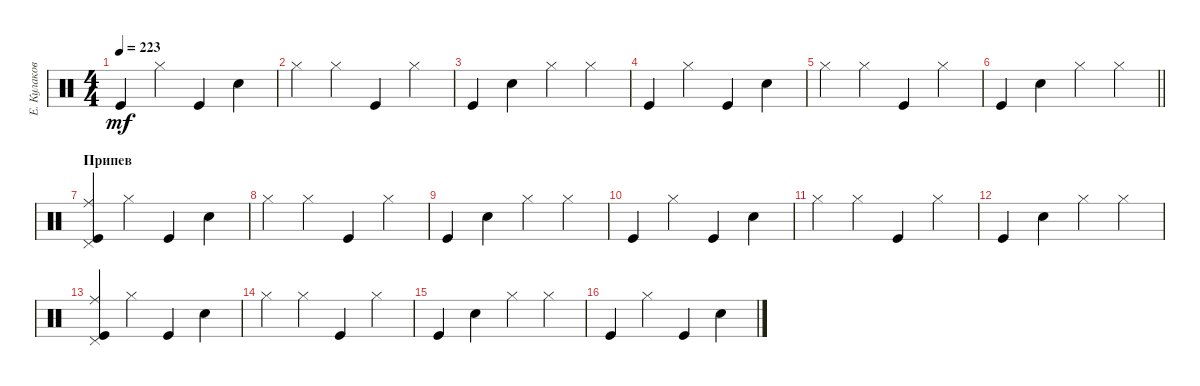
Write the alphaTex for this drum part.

\track ("Е. Кулаков" "Е. Кулаков") {instrument percussion}
\staff {score}
\articulation defaults
\ts (4 4)
\tempo 223
\clef neutral
\ks c "Kick (hit)".4{dy mf} "Hi-Hat (closed)".4 "Kick (hit)".4 "Snare (hit) 2".4
|
"Hi-Hat (closed)".4 "Hi-Hat (closed)".4 "Kick (hit)".4 "Hi-Hat (closed)".4 |
"Kick (hit)".4 "Snare (hit) 2".4 "Hi-Hat (closed)".4 "Hi-Hat (closed)".4 |
"Kick (hit)".4 "Hi-Hat (closed)".4 "Kick (hit)".4 "Snare (hit) 2".4 |
"Hi-Hat (closed)".4 "Hi-Hat (closed)".4 "Kick (hit)".4 "Hi-Hat (closed)".4 |
\barLineRight lightlight "Kick (hit)".4 "Snare (hit) 2".4 "Hi-Hat (closed)".4 "Hi-Hat (closed)".4
|
\section ("" "Припев")
("Kick (hit)" "Ride (middle)" "Pedal Hi-Hat (hit)").4 "Hi-Hat (closed)".4 "Kick (hit)".4 "Snare (hit) 2".4 |
"Hi-Hat (closed)".4 "Hi-Hat (closed)".4 "Kick (hit)".4 "Hi-Hat (closed)".4 |
"Kick (hit)".4 "Snare (hit) 2".4 "Hi-Hat (closed)".4 "Hi-Hat (closed)".4 |
"Kick (hit)".4 "Hi-Hat (closed)".4 "Kick (hit)".4 "Snare (hit) 2".4 |
"Hi-Hat (closed)".4 "Hi-Hat (closed)".4 "Kick (hit)".4 "Hi-Hat (closed)".4 |
"Kick (hit)".4 "Snare (hit) 2".4 "Hi-Hat (closed)".4 "Hi-Hat (closed)".4 |
("Kick (hit)" "Ride (middle)" "Pedal Hi-Hat (hit)").4 "Hi-Hat (closed)".4 "Kick (hit)".4 "Snare (hit) 2".4 |
"Hi-Hat (closed)".4 "Hi-Hat (closed)".4 "Kick (hit)".4 "Hi-Hat (closed)".4 |
"Kick (hit)".4 "Snare (hit) 2".4 "Hi-Hat (closed)".4 "Hi-Hat (closed)".4 |
"Kick (hit)".4 "Hi-Hat (closed)".4 "Kick (hit)".4 "Snare (hit) 2".4
